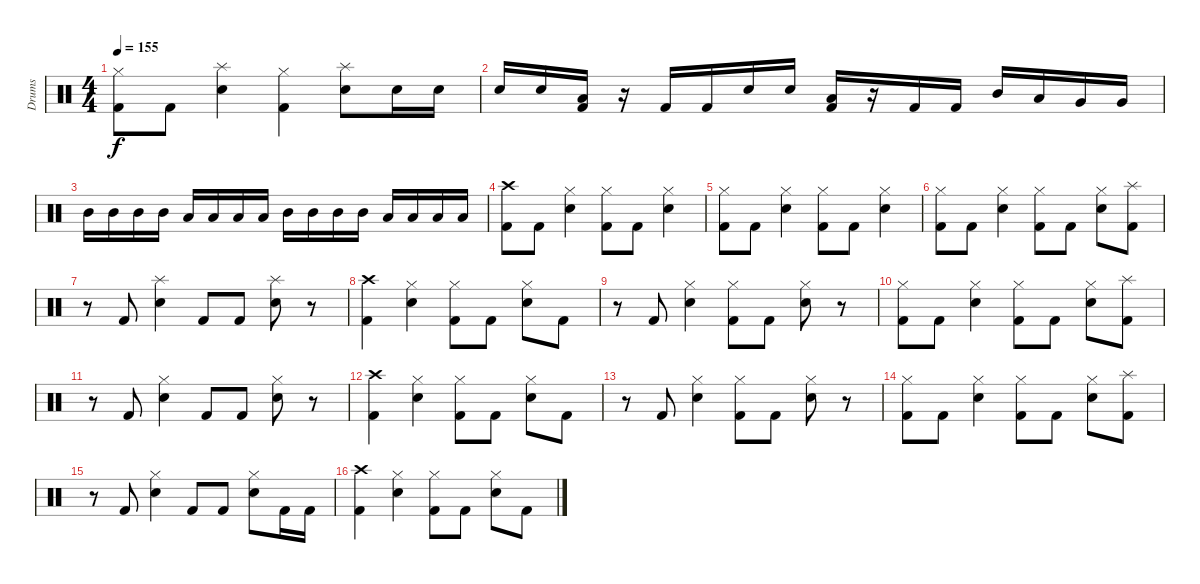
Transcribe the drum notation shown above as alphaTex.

\track ("Drums" "Drums") {instrument percussion}
\staff {score}
\articulation defaults
\ts (4 4)
\tempo 155
\clef neutral
\ks c
("Hi-Hat (closed)" "Kick (hit) 2").8{dy f} "Kick (hit) 2".8 ("Splash (hit)" "Snare (hit) 2").4 ("Hi-Hat (closed)" "Kick (hit) 2").4 ("Splash (hit)" "Snare (hit) 2").8 "Snare (hit) 2".16 "Snare (hit) 2".16 |
"Snare (hit) 2".16 "Snare (hit) 2".16 ("Low Tom (hit)" "Kick (hit) 2").16 r.16 "Kick (hit) 2".16 "Kick (hit) 2".16 "Snare (hit) 2".16 "Snare (hit) 2".16 ("Low Tom (hit)" "Kick (hit) 2").16 r.16 "Kick (hit) 2".16 "Kick (hit) 2".16 "Mid Tom (hit)".16 "Low Tom (hit)".16 "Very Low Tom (hit)".16 "Very Low Tom (hit)".16 |
"Mid Tom (hit)".16 "Mid Tom (hit)".16 "Mid Tom (hit)".16 "Mid Tom (hit)".16 "Low Tom (hit)".16 "Low Tom (hit)".16 "Low Tom (hit)".16 "Low Tom (hit)".16 "Mid Tom (hit)".16 "Mid Tom (hit)".16 "Mid Tom (hit)".16 "Mid Tom (hit)".16 "Low Tom (hit)".16 "Low Tom (hit)".16 "Low Tom (hit)".16 "Low Tom (hit)".16 |
("Crash high (hit)" "Kick (hit) 2").8 "Kick (hit) 2".8 ("Hi-Hat (closed)" "Snare (hit) 2").4 ("Hi-Hat (closed)" "Kick (hit) 2").8 "Kick (hit) 2".8 ("Hi-Hat (closed)" "Snare (hit) 2").4 |
("Hi-Hat (closed)" "Kick (hit) 2").8 "Kick (hit) 2".8 ("Hi-Hat (closed)" "Snare (hit) 2").4 ("Hi-Hat (closed)" "Kick (hit) 2").8 "Kick (hit) 2".8 ("Hi-Hat (closed)" "Snare (hit) 2").4 |
("Hi-Hat (closed)" "Kick (hit) 2").8 "Kick (hit) 2".8 ("Hi-Hat (closed)" "Snare (hit) 2").4 ("Hi-Hat (closed)" "Kick (hit) 2").8 "Kick (hit) 2".8 ("Hi-Hat (closed)" "Snare (hit) 2").8 ("Splash (hit)" "Kick (hit) 2").8 |
r.8 "Kick (hit) 2".8 ("Splash (hit)" "Snare (hit) 2").4 "Kick (hit) 2".8 "Kick (hit) 2".8 ("Splash (hit)" "Snare (hit) 2").8 r.8 |
("Crash high (hit)" "Kick (hit) 2").4 ("Hi-Hat (closed)" "Snare (hit) 2").4 ("Hi-Hat (closed)" "Kick (hit) 2").8 "Kick (hit) 2".8 ("Hi-Hat (closed)" "Snare (hit) 2").8 "Kick (hit) 2".8 |
r.8 "Kick (hit) 2".8 ("Hi-Hat (closed)" "Snare (hit) 2").4 ("Hi-Hat (closed)" "Kick (hit) 2").8 "Kick (hit) 2".8 ("Hi-Hat (closed)" "Snare (hit) 2").8 r.8 |
("Hi-Hat (closed)" "Kick (hit) 2").8 "Kick (hit) 2".8 ("Hi-Hat (closed)" "Snare (hit) 2").4 ("Hi-Hat (closed)" "Kick (hit) 2").8 "Kick (hit) 2".8 ("Hi-Hat (closed)" "Snare (hit) 2").8 ("Splash (hit)" "Kick (hit) 2").8 |
r.8 "Kick (hit) 2".8 ("Hi-Hat (closed)" "Snare (hit) 2").4 "Kick (hit) 2".8 "Kick (hit) 2".8 ("Hi-Hat (closed)" "Snare (hit) 2").8 r.8 |
("Crash high (hit)" "Kick (hit) 2").4 ("Hi-Hat (closed)" "Snare (hit) 2").4 ("Hi-Hat (closed)" "Kick (hit) 2").8 "Kick (hit) 2".8 ("Hi-Hat (closed)" "Snare (hit) 2").8 "Kick (hit) 2".8 |
r.8 "Kick (hit) 2".8 ("Hi-Hat (closed)" "Snare (hit) 2").4 ("Hi-Hat (closed)" "Kick (hit) 2").8 "Kick (hit) 2".8 ("Hi-Hat (closed)" "Snare (hit) 2").8 r.8 |
("Hi-Hat (closed)" "Kick (hit) 2").8 "Kick (hit) 2".8 ("Hi-Hat (closed)" "Snare (hit) 2").4 ("Hi-Hat (closed)" "Kick (hit) 2").8 "Kick (hit) 2".8 ("Hi-Hat (closed)" "Snare (hit) 2").8 ("Splash (hit)" "Kick (hit) 2").8 |
r.8 "Kick (hit) 2".8 ("Hi-Hat (closed)" "Snare (hit) 2").4 "Kick (hit) 2".8 "Kick (hit) 2".8 ("Hi-Hat (closed)" "Snare (hit) 2").8 "Kick (hit) 2".16 "Kick (hit) 2".16 |
("Crash high (hit)" "Kick (hit) 2").4 ("Hi-Hat (closed)" "Snare (hit) 2").4 ("Hi-Hat (closed)" "Kick (hit) 2").8 "Kick (hit) 2".8 ("Hi-Hat (closed)" "Snare (hit) 2").8 "Kick (hit) 2".8
